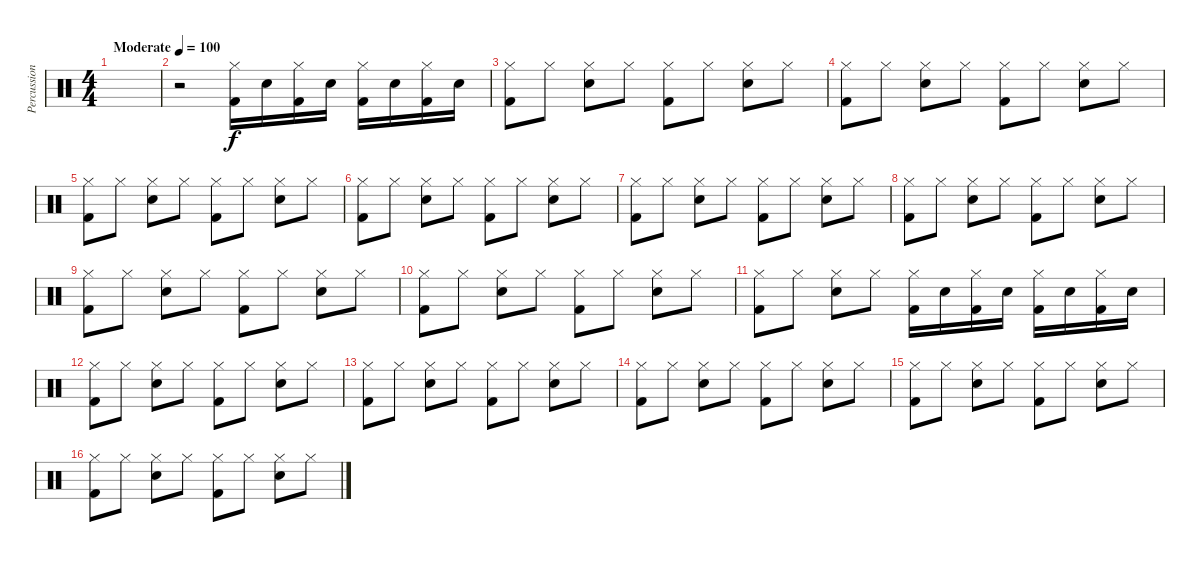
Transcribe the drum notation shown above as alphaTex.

\track ("Percussions" "Percussion") {instrument percussion}
\staff {score}
\articulation defaults
\ts (4 4)
\tempo (100 "Moderate")
\clef neutral
\ks c
|
r.2 ("Kick (hit) 2" "Hi-Hat (closed)").16 "Snare (hit) 2".16 ("Kick (hit) 2" "Hi-Hat (closed)").16 "Snare (hit) 2".16 ("Kick (hit) 2" "Hi-Hat (closed)").16 "Snare (hit) 2".16 ("Kick (hit) 2" "Hi-Hat (closed)").16 "Snare (hit) 2".16 |
("Hi-Hat (closed)" "Kick (hit) 2").8 "Hi-Hat (closed)".8 ("Hi-Hat (closed)" "Snare (hit) 2").8 "Hi-Hat (closed)".8 ("Hi-Hat (closed)" "Kick (hit) 2").8 "Hi-Hat (closed)".8 ("Hi-Hat (closed)" "Snare (hit) 2").8 "Hi-Hat (closed)".8 |
("Hi-Hat (closed)" "Kick (hit) 2").8 "Hi-Hat (closed)".8 ("Hi-Hat (closed)" "Snare (hit) 2").8 "Hi-Hat (closed)".8 ("Hi-Hat (closed)" "Kick (hit) 2").8 "Hi-Hat (closed)".8 ("Hi-Hat (closed)" "Snare (hit) 2").8 "Hi-Hat (closed)".8 |
("Hi-Hat (closed)" "Kick (hit) 2").8 "Hi-Hat (closed)".8 ("Hi-Hat (closed)" "Snare (hit) 2").8 "Hi-Hat (closed)".8 ("Hi-Hat (closed)" "Kick (hit) 2").8 "Hi-Hat (closed)".8 ("Hi-Hat (closed)" "Snare (hit) 2").8 "Hi-Hat (closed)".8 |
("Hi-Hat (closed)" "Kick (hit) 2").8 "Hi-Hat (closed)".8 ("Hi-Hat (closed)" "Snare (hit) 2").8 "Hi-Hat (closed)".8 ("Hi-Hat (closed)" "Kick (hit) 2").8 "Hi-Hat (closed)".8 ("Hi-Hat (closed)" "Snare (hit) 2").8 "Hi-Hat (closed)".8 |
("Hi-Hat (closed)" "Kick (hit) 2").8 "Hi-Hat (closed)".8 ("Hi-Hat (closed)" "Snare (hit) 2").8 "Hi-Hat (closed)".8 ("Hi-Hat (closed)" "Kick (hit) 2").8 "Hi-Hat (closed)".8 ("Hi-Hat (closed)" "Snare (hit) 2").8 "Hi-Hat (closed)".8 |
("Hi-Hat (closed)" "Kick (hit) 2").8 "Hi-Hat (closed)".8 ("Hi-Hat (closed)" "Snare (hit) 2").8 "Hi-Hat (closed)".8 ("Hi-Hat (closed)" "Kick (hit) 2").8 "Hi-Hat (closed)".8 ("Hi-Hat (closed)" "Snare (hit) 2").8 "Hi-Hat (closed)".8 |
("Hi-Hat (closed)" "Kick (hit) 2").8 "Hi-Hat (closed)".8 ("Hi-Hat (closed)" "Snare (hit) 2").8 "Hi-Hat (closed)".8 ("Hi-Hat (closed)" "Kick (hit) 2").8 "Hi-Hat (closed)".8 ("Hi-Hat (closed)" "Snare (hit) 2").8 "Hi-Hat (closed)".8 |
("Hi-Hat (closed)" "Kick (hit) 2").8 "Hi-Hat (closed)".8 ("Hi-Hat (closed)" "Snare (hit) 2").8 "Hi-Hat (closed)".8 ("Hi-Hat (closed)" "Kick (hit) 2").8 "Hi-Hat (closed)".8 ("Hi-Hat (closed)" "Snare (hit) 2").8 "Hi-Hat (closed)".8 |
("Hi-Hat (closed)" "Kick (hit) 2").8 "Hi-Hat (closed)".8 ("Hi-Hat (closed)" "Snare (hit) 2").8 "Hi-Hat (closed)".8 ("Kick (hit) 2" "Hi-Hat (closed)").16 "Snare (hit) 2".16 ("Kick (hit) 2" "Hi-Hat (closed)").16 "Snare (hit) 2".16 ("Kick (hit) 2" "Hi-Hat (closed)").16 "Snare (hit) 2".16 ("Kick (hit) 2" "Hi-Hat (closed)").16 "Snare (hit) 2".16 |
("Hi-Hat (closed)" "Kick (hit) 2").8 "Hi-Hat (closed)".8 ("Hi-Hat (closed)" "Snare (hit) 2").8 "Hi-Hat (closed)".8 ("Hi-Hat (closed)" "Kick (hit) 2").8 "Hi-Hat (closed)".8 ("Hi-Hat (closed)" "Snare (hit) 2").8 "Hi-Hat (closed)".8 |
("Hi-Hat (closed)" "Kick (hit) 2").8 "Hi-Hat (closed)".8 ("Hi-Hat (closed)" "Snare (hit) 2").8 "Hi-Hat (closed)".8 ("Hi-Hat (closed)" "Kick (hit) 2").8 "Hi-Hat (closed)".8 ("Hi-Hat (closed)" "Snare (hit) 2").8 "Hi-Hat (closed)".8 |
("Hi-Hat (closed)" "Kick (hit) 2").8 "Hi-Hat (closed)".8 ("Hi-Hat (closed)" "Snare (hit) 2").8 "Hi-Hat (closed)".8 ("Hi-Hat (closed)" "Kick (hit) 2").8 "Hi-Hat (closed)".8 ("Hi-Hat (closed)" "Snare (hit) 2").8 "Hi-Hat (closed)".8 |
("Hi-Hat (closed)" "Kick (hit) 2").8 "Hi-Hat (closed)".8 ("Hi-Hat (closed)" "Snare (hit) 2").8 "Hi-Hat (closed)".8 ("Hi-Hat (closed)" "Kick (hit) 2").8 "Hi-Hat (closed)".8 ("Hi-Hat (closed)" "Snare (hit) 2").8 "Hi-Hat (closed)".8 |
("Hi-Hat (closed)" "Kick (hit) 2").8 "Hi-Hat (closed)".8 ("Hi-Hat (closed)" "Snare (hit) 2").8 "Hi-Hat (closed)".8 ("Hi-Hat (closed)" "Kick (hit) 2").8 "Hi-Hat (closed)".8 ("Hi-Hat (closed)" "Snare (hit) 2").8 "Hi-Hat (closed)".8
